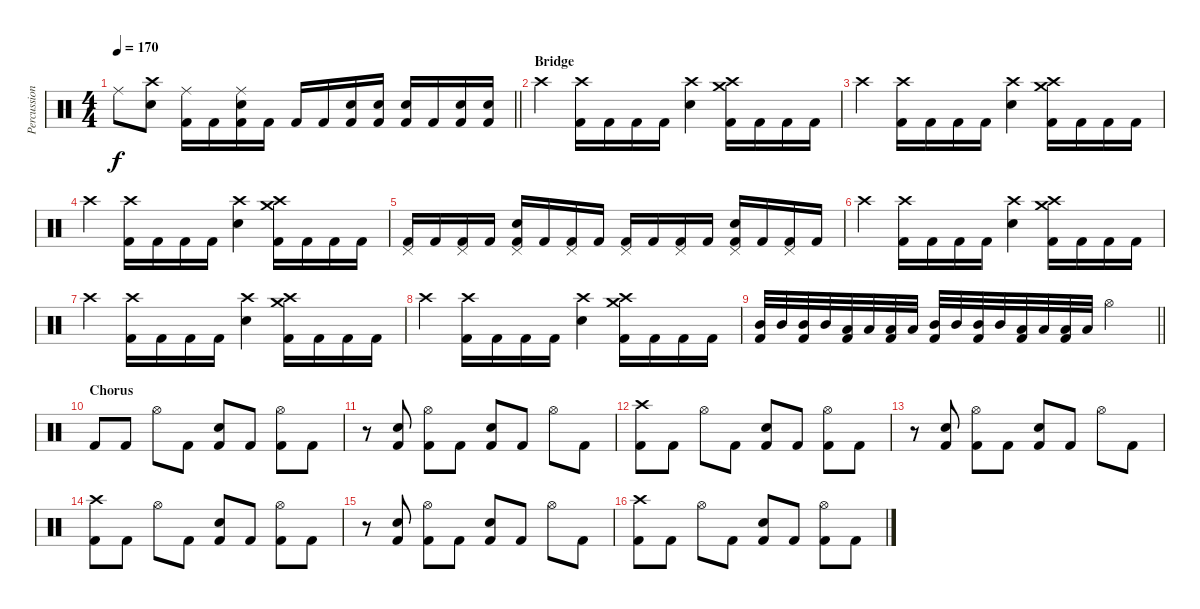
\track ("Percussion" "Percussion") {instrument percussion}
\staff {score}
\articulation defaults
\ts (4 4)
\tempo 170
\clef neutral
\barLineRight lightlight
\ks c "Ride (middle)".8{dy f}
("Crash high (hit)" "Snare (hit) 2").8 ("Ride (middle)" "Kick (hit) 2").16 "Kick (hit) 2".16 ("Ride (middle)" "Snare (hit) 2" "Kick (hit) 2").16 "Kick (hit) 2".16 "Kick (hit) 2".16 "Kick (hit) 2".16 ("Snare (hit) 2" "Kick (hit) 2").16 ("Snare (hit) 2" "Kick (hit) 2").16 ("Snare (hit) 2" "Kick (hit) 2").16 "Kick (hit) 2".16 ("Snare (hit) 2" "Kick (hit) 2").16 ("Snare (hit) 2" "Kick (hit) 2").16 |
\section ("" "Bridge")
"Crash high (hit)".4 ("Crash high (hit)" "Kick (hit) 2").16 "Kick (hit) 2".16 "Kick (hit) 2".16 "Kick (hit) 2".16 ("Crash high (hit)" "Snare (hit) 2").4 ("Crash high (hit)" "Crash medium (hit)" "Kick (hit) 2").16 "Kick (hit) 2".16 "Kick (hit) 2".16 "Kick (hit) 2".16 |
"Crash high (hit)".4 ("Crash high (hit)" "Kick (hit) 2").16 "Kick (hit) 2".16 "Kick (hit) 2".16 "Kick (hit) 2".16 ("Crash high (hit)" "Snare (hit) 2").4 ("Crash high (hit)" "Crash medium (hit)" "Kick (hit) 2").16 "Kick (hit) 2".16 "Kick (hit) 2".16 "Kick (hit) 2".16 |
"Crash high (hit)".4 ("Crash high (hit)" "Kick (hit) 2").16 "Kick (hit) 2".16 "Kick (hit) 2".16 "Kick (hit) 2".16 ("Crash high (hit)" "Snare (hit) 2").4 ("Crash high (hit)" "Crash medium (hit)" "Kick (hit) 2").16 "Kick (hit) 2".16 "Kick (hit) 2".16 "Kick (hit) 2".16 |
("Pedal Hi-Hat (hit)" "Kick (hit) 2").16 "Kick (hit) 2".16 ("Pedal Hi-Hat (hit)" "Kick (hit) 2").16 "Kick (hit) 2".16 ("Pedal Hi-Hat (hit)" "Snare (hit) 2" "Kick (hit) 2").16 "Kick (hit) 2".16 ("Pedal Hi-Hat (hit)" "Kick (hit) 2").16 "Kick (hit) 2".16 ("Pedal Hi-Hat (hit)" "Kick (hit) 2").16 "Kick (hit) 2".16 ("Pedal Hi-Hat (hit)" "Kick (hit) 2").16 "Kick (hit) 2".16 ("Pedal Hi-Hat (hit)" "Snare (hit) 2" "Kick (hit) 2").16 "Kick (hit) 2".16 ("Pedal Hi-Hat (hit)" "Kick (hit) 2").16 "Kick (hit) 2".16 |
"Crash high (hit)".4 ("Crash high (hit)" "Kick (hit) 2").16 "Kick (hit) 2".16 "Kick (hit) 2".16 "Kick (hit) 2".16 ("Crash high (hit)" "Snare (hit) 2").4 ("Crash high (hit)" "Crash medium (hit)" "Kick (hit) 2").16 "Kick (hit) 2".16 "Kick (hit) 2".16 "Kick (hit) 2".16 |
"Crash high (hit)".4 ("Crash high (hit)" "Kick (hit) 2").16 "Kick (hit) 2".16 "Kick (hit) 2".16 "Kick (hit) 2".16 ("Crash high (hit)" "Snare (hit) 2").4 ("Crash high (hit)" "Crash medium (hit)" "Kick (hit) 2").16 "Kick (hit) 2".16 "Kick (hit) 2".16 "Kick (hit) 2".16 |
"Crash high (hit)".4 ("Crash high (hit)" "Kick (hit) 2").16 "Kick (hit) 2".16 "Kick (hit) 2".16 "Kick (hit) 2".16 ("Crash high (hit)" "Snare (hit) 2").4 ("Crash high (hit)" "Crash medium (hit)" "Kick (hit) 2").16 "Kick (hit) 2".16 "Kick (hit) 2".16 "Kick (hit) 2".16 |
\barLineRight lightlight
("Mid Tom (hit)" "Kick (hit) 2").32 "Mid Tom (hit)".32 ("Mid Tom (hit)" "Kick (hit) 2").32 "Mid Tom (hit)".32 ("Low Tom (hit)" "Kick (hit) 2").32 "Low Tom (hit)".32 ("Low Tom (hit)" "Kick (hit) 2").32 "Low Tom (hit)".32 ("Mid Tom (hit)" "Kick (hit) 2").32 "Mid Tom (hit)".32 ("Mid Tom (hit)" "Kick (hit) 2").32 "Mid Tom (hit)".32 ("Low Tom (hit)" "Kick (hit) 2").32 "Low Tom (hit)".32 ("Low Tom (hit)" "Kick (hit) 2").32 "Low Tom (hit)".32 "Hi-Hat (open)".2 |
\section ("" "Chorus")
"Kick (hit) 2".8 "Kick (hit) 2".8 "Hi-Hat (open)".8 "Kick (hit) 2".8 ("Snare (hit) 2" "Kick (hit) 2").8 "Kick (hit) 2".8 ("Hi-Hat (open)" "Kick (hit) 2").8 "Kick (hit) 2".8 |
r.8 ("Snare (hit) 2" "Kick (hit) 2").8 ("Hi-Hat (open)" "Kick (hit) 2").8 "Kick (hit) 2".8 ("Snare (hit) 2" "Kick (hit) 2").8 "Kick (hit) 2".8 "Hi-Hat (open)".8 "Kick (hit) 2".8 |
("Crash high (hit)" "Kick (hit) 2").8 "Kick (hit) 2".8 "Hi-Hat (open)".8 "Kick (hit) 2".8 ("Snare (hit) 2" "Kick (hit) 2").8 "Kick (hit) 2".8 ("Hi-Hat (open)" "Kick (hit) 2").8 "Kick (hit) 2".8 |
r.8 ("Snare (hit) 2" "Kick (hit) 2").8 ("Hi-Hat (open)" "Kick (hit) 2").8 "Kick (hit) 2".8 ("Snare (hit) 2" "Kick (hit) 2").8 "Kick (hit) 2".8 "Hi-Hat (open)".8 "Kick (hit) 2".8 |
("Crash high (hit)" "Kick (hit) 2").8 "Kick (hit) 2".8 "Hi-Hat (open)".8 "Kick (hit) 2".8 ("Snare (hit) 2" "Kick (hit) 2").8 "Kick (hit) 2".8 ("Hi-Hat (open)" "Kick (hit) 2").8 "Kick (hit) 2".8 |
r.8 ("Snare (hit) 2" "Kick (hit) 2").8 ("Hi-Hat (open)" "Kick (hit) 2").8 "Kick (hit) 2".8 ("Snare (hit) 2" "Kick (hit) 2").8 "Kick (hit) 2".8 "Hi-Hat (open)".8 "Kick (hit) 2".8 |
("Crash high (hit)" "Kick (hit) 2").8 "Kick (hit) 2".8 "Hi-Hat (open)".8 "Kick (hit) 2".8 ("Snare (hit) 2" "Kick (hit) 2").8 "Kick (hit) 2".8 ("Hi-Hat (open)" "Kick (hit) 2").8 "Kick (hit) 2".8
